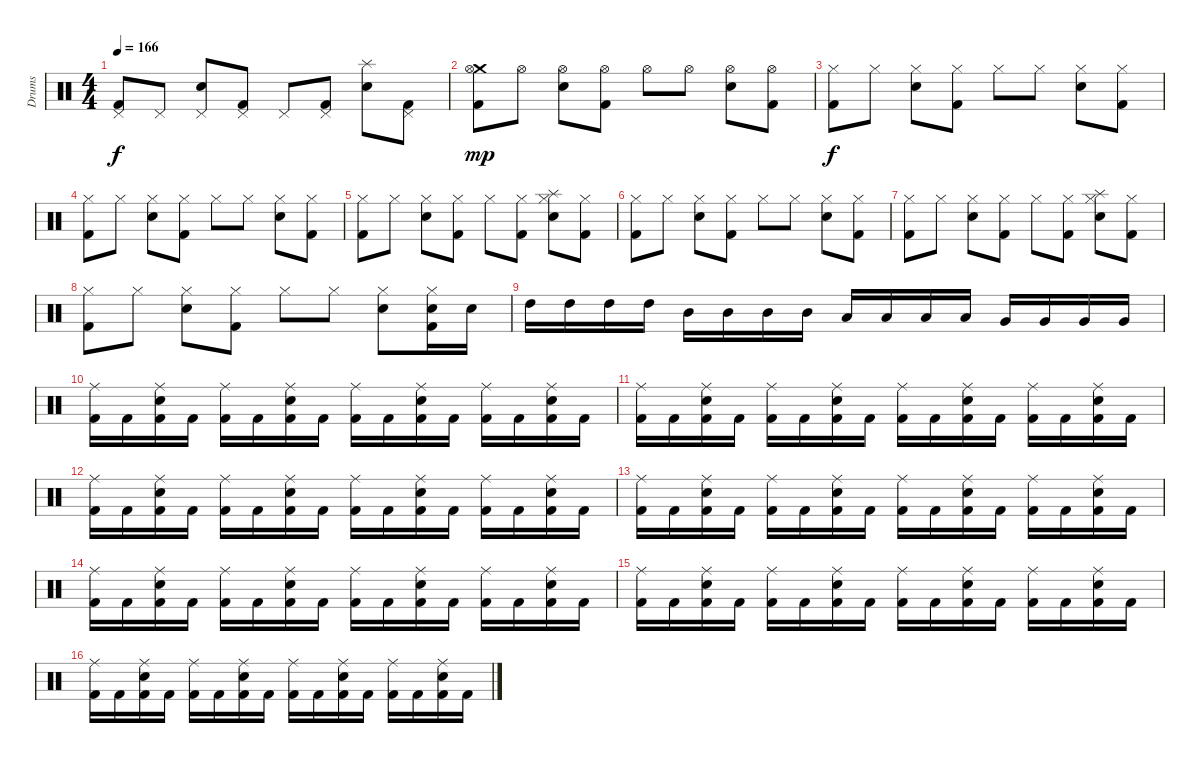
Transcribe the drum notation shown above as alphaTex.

\track ("Drums" "Drums") {instrument percussion}
\staff {score}
\articulation defaults
\ts (4 4)
\tempo 166
\clef neutral
\ks c
("Pedal Hi-Hat (hit)" "Kick (hit) 2").8{dy f} "Pedal Hi-Hat (hit)".8 ("Pedal Hi-Hat (hit)" "Electric Snare (hit)").8 ("Pedal Hi-Hat (hit)" "Kick (hit) 2").8 "Pedal Hi-Hat (hit)".8 ("Pedal Hi-Hat (hit)" "Kick (hit) 2").8 ("Splash (hit)" "Electric Snare (hit)").8 ("Pedal Hi-Hat (hit)" "Kick (hit) 2").8 |
("Crash medium (hit)" "Hi-Hat (open)" "Kick (hit) 2").8{dy mp} "Hi-Hat (open)".8 ("Hi-Hat (open)" "Electric Snare (hit)").8 ("Hi-Hat (open)" "Kick (hit) 2").8 "Hi-Hat (open)".8 "Hi-Hat (open)".8 ("Hi-Hat (open)" "Electric Snare (hit)").8 ("Hi-Hat (open)" "Kick (hit) 2").8 |
("Hi-Hat (closed)" "Kick (hit) 2").8{dy f} "Hi-Hat (closed)".8 ("Hi-Hat (closed)" "Electric Snare (hit)").8 ("Hi-Hat (closed)" "Kick (hit) 2").8 "Hi-Hat (closed)".8 "Hi-Hat (closed)".8 ("Hi-Hat (closed)" "Electric Snare (hit)").8 ("Hi-Hat (closed)" "Kick (hit) 2").8 |
("Hi-Hat (closed)" "Kick (hit) 2").8 "Hi-Hat (closed)".8 ("Hi-Hat (closed)" "Electric Snare (hit)").8 ("Hi-Hat (closed)" "Kick (hit) 2").8 "Hi-Hat (closed)".8 "Hi-Hat (closed)".8 ("Hi-Hat (closed)" "Electric Snare (hit)").8 ("Hi-Hat (closed)" "Kick (hit) 2").8 |
("Hi-Hat (closed)" "Kick (hit) 2").8 "Hi-Hat (closed)".8 ("Hi-Hat (closed)" "Electric Snare (hit)").8 ("Hi-Hat (closed)" "Kick (hit) 2").8 "Hi-Hat (closed)".8 ("Hi-Hat (closed)" "Kick (hit) 2").8 ("Splash (hit)" "Hi-Hat (closed)" "Electric Snare (hit)").8 ("Hi-Hat (closed)" "Kick (hit) 2").8 |
("Hi-Hat (closed)" "Kick (hit) 2").8 "Hi-Hat (closed)".8 ("Hi-Hat (closed)" "Electric Snare (hit)").8 ("Hi-Hat (closed)" "Kick (hit) 2").8 "Hi-Hat (closed)".8 "Hi-Hat (closed)".8 ("Hi-Hat (closed)" "Electric Snare (hit)").8 ("Hi-Hat (closed)" "Kick (hit) 2").8 |
("Hi-Hat (closed)" "Kick (hit) 2").8 "Hi-Hat (closed)".8 ("Hi-Hat (closed)" "Electric Snare (hit)").8 ("Hi-Hat (closed)" "Kick (hit) 2").8 "Hi-Hat (closed)".8 ("Hi-Hat (closed)" "Kick (hit) 2").8 ("Splash (hit)" "Hi-Hat (closed)" "Electric Snare (hit)").8 ("Hi-Hat (closed)" "Kick (hit) 2").8 |
("Hi-Hat (closed)" "Kick (hit) 2").8 "Hi-Hat (closed)".8 ("Hi-Hat (closed)" "Electric Snare (hit)").8 ("Hi-Hat (closed)" "Kick (hit) 2").8 "Hi-Hat (closed)".8 "Hi-Hat (closed)".8 ("Hi-Hat (closed)" "Electric Snare (hit)").8 ("Hi-Hat (closed)" "Electric Snare (hit)" "Kick (hit) 2").16 "Electric Snare (hit)".16 |
"High Tom (hit)".16 "High Tom (hit)".16 "High Tom (hit)".16 "High Tom (hit)".16 "Mid Tom (hit)".16 "Mid Tom (hit)".16 "Mid Tom (hit)".16 "Mid Tom (hit)".16 "Low Tom (hit)".16 "Low Tom (hit)".16 "Low Tom (hit)".16 "Low Tom (hit)".16 "Very Low Tom (hit)".16 "Very Low Tom (hit)".16 "Very Low Tom (hit)".16 "Very Low Tom (hit)".16 |
("Ride (middle)" "Kick (hit) 2").16 "Kick (hit) 2".16 ("Ride (middle)" "Electric Snare (hit)" "Kick (hit) 2").16 "Kick (hit) 2".16 ("Ride (middle)" "Kick (hit) 2").16 "Kick (hit) 2".16 ("Ride (middle)" "Electric Snare (hit)" "Kick (hit) 2").16 "Kick (hit) 2".16 ("Ride (middle)" "Kick (hit) 2").16 "Kick (hit) 2".16 ("Ride (middle)" "Electric Snare (hit)" "Kick (hit) 2").16 "Kick (hit) 2".16 ("Ride (middle)" "Kick (hit) 2").16 "Kick (hit) 2".16 ("Ride (middle)" "Electric Snare (hit)" "Kick (hit) 2").16 "Kick (hit) 2".16 |
("Ride (middle)" "Kick (hit) 2").16 "Kick (hit) 2".16 ("Ride (middle)" "Electric Snare (hit)" "Kick (hit) 2").16 "Kick (hit) 2".16 ("Ride (middle)" "Kick (hit) 2").16 "Kick (hit) 2".16 ("Ride (middle)" "Electric Snare (hit)" "Kick (hit) 2").16 "Kick (hit) 2".16 ("Ride (middle)" "Kick (hit) 2").16 "Kick (hit) 2".16 ("Ride (middle)" "Electric Snare (hit)" "Kick (hit) 2").16 "Kick (hit) 2".16 ("Ride (middle)" "Kick (hit) 2").16 "Kick (hit) 2".16 ("Ride (middle)" "Electric Snare (hit)" "Kick (hit) 2").16 "Kick (hit) 2".16 |
("Ride (middle)" "Kick (hit) 2").16 "Kick (hit) 2".16 ("Ride (middle)" "Electric Snare (hit)" "Kick (hit) 2").16 "Kick (hit) 2".16 ("Ride (middle)" "Kick (hit) 2").16 "Kick (hit) 2".16 ("Ride (middle)" "Electric Snare (hit)" "Kick (hit) 2").16 "Kick (hit) 2".16 ("Ride (middle)" "Kick (hit) 2").16 "Kick (hit) 2".16 ("Ride (middle)" "Electric Snare (hit)" "Kick (hit) 2").16 "Kick (hit) 2".16 ("Ride (middle)" "Kick (hit) 2").16 "Kick (hit) 2".16 ("Ride (middle)" "Electric Snare (hit)" "Kick (hit) 2").16 "Kick (hit) 2".16 |
("Ride (middle)" "Kick (hit) 2").16 "Kick (hit) 2".16 ("Ride (middle)" "Electric Snare (hit)" "Kick (hit) 2").16 "Kick (hit) 2".16 ("Ride (middle)" "Kick (hit) 2").16 "Kick (hit) 2".16 ("Ride (middle)" "Electric Snare (hit)" "Kick (hit) 2").16 "Kick (hit) 2".16 ("Ride (middle)" "Kick (hit) 2").16 "Kick (hit) 2".16 ("Ride (middle)" "Electric Snare (hit)" "Kick (hit) 2").16 "Kick (hit) 2".16 ("Ride (middle)" "Kick (hit) 2").16 "Kick (hit) 2".16 ("Ride (middle)" "Electric Snare (hit)" "Kick (hit) 2").16 "Kick (hit) 2".16 |
("Ride (middle)" "Kick (hit) 2").16 "Kick (hit) 2".16 ("Ride (middle)" "Electric Snare (hit)" "Kick (hit) 2").16 "Kick (hit) 2".16 ("Ride (middle)" "Kick (hit) 2").16 "Kick (hit) 2".16 ("Ride (middle)" "Electric Snare (hit)" "Kick (hit) 2").16 "Kick (hit) 2".16 ("Ride (middle)" "Kick (hit) 2").16 "Kick (hit) 2".16 ("Ride (middle)" "Electric Snare (hit)" "Kick (hit) 2").16 "Kick (hit) 2".16 ("Ride (middle)" "Kick (hit) 2").16 "Kick (hit) 2".16 ("Ride (middle)" "Electric Snare (hit)" "Kick (hit) 2").16 "Kick (hit) 2".16 |
("Ride (middle)" "Kick (hit) 2").16 "Kick (hit) 2".16 ("Ride (middle)" "Electric Snare (hit)" "Kick (hit) 2").16 "Kick (hit) 2".16 ("Ride (middle)" "Kick (hit) 2").16 "Kick (hit) 2".16 ("Ride (middle)" "Electric Snare (hit)" "Kick (hit) 2").16 "Kick (hit) 2".16 ("Ride (middle)" "Kick (hit) 2").16 "Kick (hit) 2".16 ("Ride (middle)" "Electric Snare (hit)" "Kick (hit) 2").16 "Kick (hit) 2".16 ("Ride (middle)" "Kick (hit) 2").16 "Kick (hit) 2".16 ("Ride (middle)" "Electric Snare (hit)" "Kick (hit) 2").16 "Kick (hit) 2".16 |
("Ride (middle)" "Kick (hit) 2").16 "Kick (hit) 2".16 ("Ride (middle)" "Electric Snare (hit)" "Kick (hit) 2").16 "Kick (hit) 2".16 ("Ride (middle)" "Kick (hit) 2").16 "Kick (hit) 2".16 ("Ride (middle)" "Electric Snare (hit)" "Kick (hit) 2").16 "Kick (hit) 2".16 ("Ride (middle)" "Kick (hit) 2").16 "Kick (hit) 2".16 ("Ride (middle)" "Electric Snare (hit)" "Kick (hit) 2").16 "Kick (hit) 2".16 ("Ride (middle)" "Kick (hit) 2").16 "Kick (hit) 2".16 ("Ride (middle)" "Electric Snare (hit)" "Kick (hit) 2").16 "Kick (hit) 2".16
